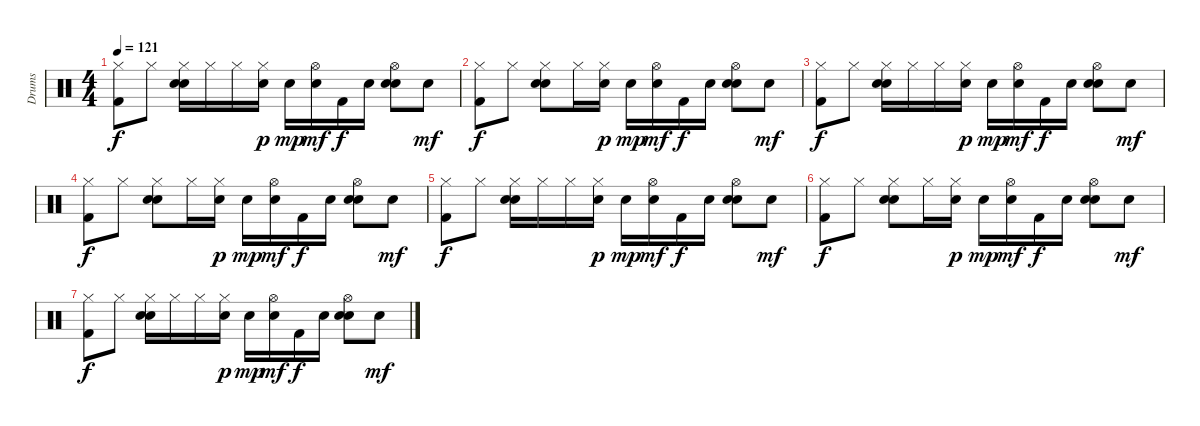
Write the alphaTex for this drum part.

\track ("Drums" "Drums") {instrument percussion}
\staff {score}
\articulation defaults
\ts (4 4)
\tempo 121
\clef neutral
\ks c
("Hi-Hat (closed)" "Kick (hit) 2").8{dy f} "Hi-Hat (closed)".8 ("Hi-Hat (closed)" "Electric Snare (hit)" "Hand Clap (hit)").16 "Hi-Hat (closed)".16 "Hi-Hat (closed)".16 ("Hi-Hat (closed)" "Electric Snare (hit)").16{dy p} "Electric Snare (hit)".16{dy mp} ("Hi-Hat (open)" "Electric Snare (hit)").16{dy mf} "Kick (hit) 2".16{dy f} "Electric Snare (hit)".16 ("Hi-Hat (open)" "Electric Snare (hit)" "Hand Clap (hit)").8 "Electric Snare (hit)".8{dy mf} |
("Hi-Hat (closed)" "Kick (hit) 2").8{dy f} "Hi-Hat (closed)".8 ("Hi-Hat (closed)" "Electric Snare (hit)" "Hand Clap (hit)").8 "Hi-Hat (closed)".16 ("Hi-Hat (closed)" "Electric Snare (hit)").16{dy p} "Electric Snare (hit)".16{dy mp} ("Hi-Hat (open)" "Electric Snare (hit)").16{dy mf} "Kick (hit) 2".16{dy f} "Electric Snare (hit)".16 ("Hi-Hat (open)" "Electric Snare (hit)" "Hand Clap (hit)").8 "Electric Snare (hit)".8{dy mf} |
("Hi-Hat (closed)" "Kick (hit) 2").8{dy f} "Hi-Hat (closed)".8 ("Hi-Hat (closed)" "Electric Snare (hit)" "Hand Clap (hit)").16 "Hi-Hat (closed)".16 "Hi-Hat (closed)".16 ("Hi-Hat (closed)" "Electric Snare (hit)").16{dy p} "Electric Snare (hit)".16{dy mp} ("Hi-Hat (open)" "Electric Snare (hit)").16{dy mf} "Kick (hit) 2".16{dy f} "Electric Snare (hit)".16 ("Hi-Hat (open)" "Electric Snare (hit)" "Hand Clap (hit)").8 "Electric Snare (hit)".8{dy mf} |
("Hi-Hat (closed)" "Kick (hit) 2").8{dy f} "Hi-Hat (closed)".8 ("Hi-Hat (closed)" "Electric Snare (hit)" "Hand Clap (hit)").8 "Hi-Hat (closed)".16 ("Hi-Hat (closed)" "Electric Snare (hit)").16{dy p} "Electric Snare (hit)".16{dy mp} ("Hi-Hat (open)" "Electric Snare (hit)").16{dy mf} "Kick (hit) 2".16{dy f} "Electric Snare (hit)".16 ("Hi-Hat (open)" "Electric Snare (hit)" "Hand Clap (hit)").8 "Electric Snare (hit)".8{dy mf} |
("Hi-Hat (closed)" "Kick (hit) 2").8{dy f} "Hi-Hat (closed)".8 ("Hi-Hat (closed)" "Electric Snare (hit)" "Hand Clap (hit)").16 "Hi-Hat (closed)".16 "Hi-Hat (closed)".16 ("Hi-Hat (closed)" "Electric Snare (hit)").16{dy p} "Electric Snare (hit)".16{dy mp} ("Hi-Hat (open)" "Electric Snare (hit)").16{dy mf} "Kick (hit) 2".16{dy f} "Electric Snare (hit)".16 ("Hi-Hat (open)" "Electric Snare (hit)" "Hand Clap (hit)").8 "Electric Snare (hit)".8{dy mf} |
("Hi-Hat (closed)" "Kick (hit) 2").8{dy f} "Hi-Hat (closed)".8 ("Hi-Hat (closed)" "Electric Snare (hit)" "Hand Clap (hit)").8 "Hi-Hat (closed)".16 ("Hi-Hat (closed)" "Electric Snare (hit)").16{dy p} "Electric Snare (hit)".16{dy mp} ("Hi-Hat (open)" "Electric Snare (hit)").16{dy mf} "Kick (hit) 2".16{dy f} "Electric Snare (hit)".16 ("Hi-Hat (open)" "Electric Snare (hit)" "Hand Clap (hit)").8 "Electric Snare (hit)".8{dy mf} |
("Hi-Hat (closed)" "Kick (hit) 2").8{dy f} "Hi-Hat (closed)".8 ("Hi-Hat (closed)" "Electric Snare (hit)" "Hand Clap (hit)").16 "Hi-Hat (closed)".16 "Hi-Hat (closed)".16 ("Hi-Hat (closed)" "Electric Snare (hit)").16{dy p} "Electric Snare (hit)".16{dy mp} ("Hi-Hat (open)" "Electric Snare (hit)").16{dy mf} "Kick (hit) 2".16{dy f} "Electric Snare (hit)".16 ("Hi-Hat (open)" "Electric Snare (hit)" "Hand Clap (hit)").8 "Electric Snare (hit)".8{dy mf}
